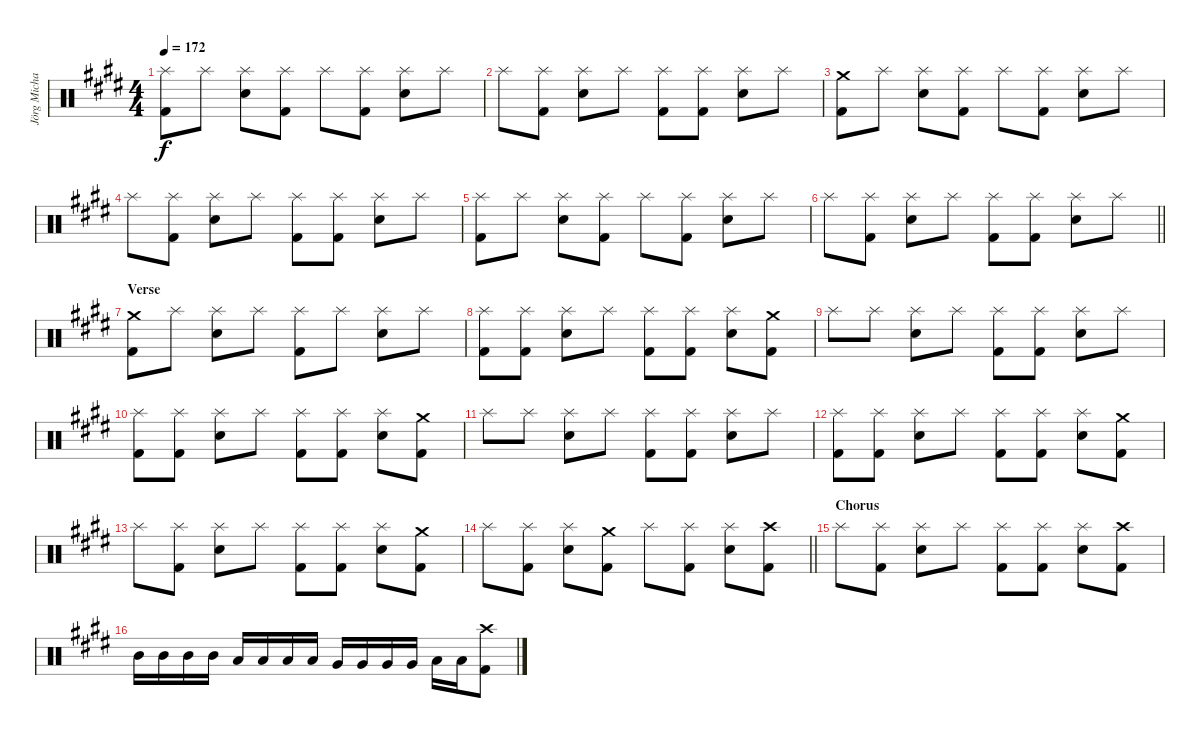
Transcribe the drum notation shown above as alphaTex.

\track ("Jörg Michael" "Jörg Micha") {instrument percussion}
\staff {score}
\articulation defaults
\ts (4 4)
\tempo 172
\clef neutral
\ks c#minor
("Splash (hit)" "Kick (hit) 2").8{dy f} "Splash (hit)".8 ("Splash (hit)" "Snare (hit) 2").8 ("Splash (hit)" "Kick (hit) 2").8 "Splash (hit)".8 ("Splash (hit)" "Kick (hit) 2").8 ("Splash (hit)" "Snare (hit) 2").8 "Splash (hit)".8 |
"Splash (hit)".8 ("Splash (hit)" "Kick (hit) 2").8 ("Splash (hit)" "Snare (hit) 2").8 "Splash (hit)".8 ("Splash (hit)" "Kick (hit) 2").8 ("Splash (hit)" "Kick (hit) 2").8 ("Splash (hit)" "Snare (hit) 2").8 "Splash (hit)".8 |
("Crash medium (hit)" "Kick (hit) 2").8 "Splash (hit)".8 ("Splash (hit)" "Snare (hit) 2").8 ("Splash (hit)" "Kick (hit) 2").8 "Splash (hit)".8 ("Splash (hit)" "Kick (hit) 2").8 ("Splash (hit)" "Snare (hit) 2").8 "Splash (hit)".8 |
"Splash (hit)".8 ("Splash (hit)" "Kick (hit) 2").8 ("Splash (hit)" "Snare (hit) 2").8 "Splash (hit)".8 ("Splash (hit)" "Kick (hit) 2").8 ("Splash (hit)" "Kick (hit) 2").8 ("Splash (hit)" "Snare (hit) 2").8 "Splash (hit)".8 |
("Splash (hit)" "Kick (hit) 2").8 "Splash (hit)".8 ("Splash (hit)" "Snare (hit) 2").8 ("Splash (hit)" "Kick (hit) 2").8 "Splash (hit)".8 ("Splash (hit)" "Kick (hit) 2").8 ("Splash (hit)" "Snare (hit) 2").8 "Splash (hit)".8 |
\barLineRight lightlight "Splash (hit)".8
("Splash (hit)" "Kick (hit) 2").8 ("Splash (hit)" "Snare (hit) 2").8 "Splash (hit)".8 ("Splash (hit)" "Kick (hit) 2").8 ("Splash (hit)" "Kick (hit) 2").8 ("Splash (hit)" "Snare (hit) 2").8 "Splash (hit)".8 |
\section ("" "Verse")
("Crash medium (hit)" "Kick (hit) 2").8 "Splash (hit)".8 ("Splash (hit)" "Snare (hit) 2").8 "Splash (hit)".8 ("Splash (hit)" "Kick (hit) 2").8 "Splash (hit)".8 ("Splash (hit)" "Snare (hit) 2").8 "Splash (hit)".8 |
("Splash (hit)" "Kick (hit) 2").8 ("Splash (hit)" "Kick (hit) 2").8 ("Splash (hit)" "Snare (hit) 2").8 "Splash (hit)".8 ("Splash (hit)" "Kick (hit) 2").8 ("Splash (hit)" "Kick (hit) 2").8 ("Splash (hit)" "Snare (hit) 2").8 ("Crash medium (hit)" "Kick (hit) 2").8 |
"Splash (hit)".8 "Splash (hit)".8 ("Splash (hit)" "Snare (hit) 2").8 "Splash (hit)".8 ("Splash (hit)" "Kick (hit) 2").8 ("Splash (hit)" "Kick (hit) 2").8 ("Splash (hit)" "Snare (hit) 2").8 "Splash (hit)".8 |
("Splash (hit)" "Kick (hit) 2").8 ("Splash (hit)" "Kick (hit) 2").8 ("Splash (hit)" "Snare (hit) 2").8 "Splash (hit)".8 ("Splash (hit)" "Kick (hit) 2").8 ("Splash (hit)" "Kick (hit) 2").8 ("Splash (hit)" "Snare (hit) 2").8 ("Crash medium (hit)" "Kick (hit) 2").8 |
"Splash (hit)".8 "Splash (hit)".8 ("Splash (hit)" "Snare (hit) 2").8 "Splash (hit)".8 ("Splash (hit)" "Kick (hit) 2").8 ("Splash (hit)" "Kick (hit) 2").8 ("Splash (hit)" "Snare (hit) 2").8 "Splash (hit)".8 |
("Splash (hit)" "Kick (hit) 2").8 ("Splash (hit)" "Kick (hit) 2").8 ("Splash (hit)" "Snare (hit) 2").8 "Splash (hit)".8 ("Splash (hit)" "Kick (hit) 2").8 ("Splash (hit)" "Kick (hit) 2").8 ("Splash (hit)" "Snare (hit) 2").8 ("Crash medium (hit)" "Kick (hit) 2").8 |
"Splash (hit)".8 ("Splash (hit)" "Kick (hit) 2").8 ("Splash (hit)" "Snare (hit) 2").8 "Splash (hit)".8 ("Splash (hit)" "Kick (hit) 2").8 ("Splash (hit)" "Kick (hit) 2").8 ("Splash (hit)" "Snare (hit) 2").8 ("Crash medium (hit)" "Kick (hit) 2").8 |
\barLineRight lightlight "Splash (hit)".8
("Splash (hit)" "Kick (hit) 2").8 ("Splash (hit)" "Snare (hit) 2").8 ("Crash medium (hit)" "Kick (hit) 2").8 "Splash (hit)".8 ("Splash (hit)" "Kick (hit) 2").8 ("Splash (hit)" "Snare (hit) 2").8 ("Crash high (hit)" "Kick (hit) 2").8 |
\section ("" "Chorus")
"Splash (hit)".8 ("Splash (hit)" "Kick (hit) 2").8 ("Splash (hit)" "Snare (hit) 2").8 "Splash (hit)".8 ("Splash (hit)" "Kick (hit) 2").8 ("Splash (hit)" "Kick (hit) 2").8 ("Splash (hit)" "Snare (hit) 2").8 ("Crash high (hit)" "Kick (hit) 2").8 |
"Mid Tom (hit)".16 "Mid Tom (hit)".16 "Mid Tom (hit)".16 "Mid Tom (hit)".16 "Low Tom (hit)".16 "Low Tom (hit)".16 "Low Tom (hit)".16 "Low Tom (hit)".16 "Very Low Tom (hit)".16 "Very Low Tom (hit)".16 "Very Low Tom (hit)".16 "Very Low Tom (hit)".16 "Low Floor Tom (hit)".16 "Low Floor Tom (hit)".16 ("Crash high (hit)" "Kick (hit) 2").8
